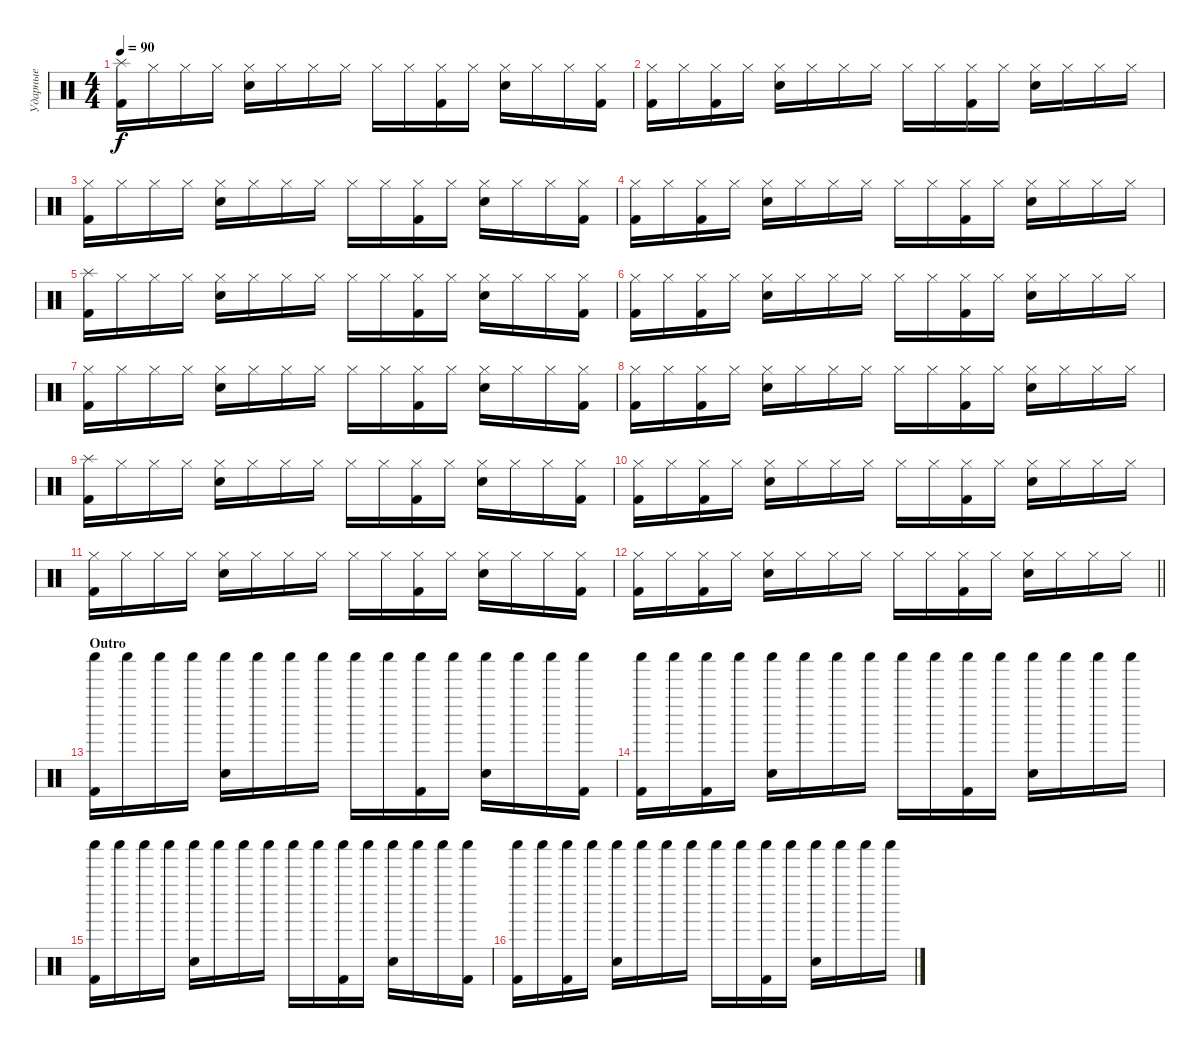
\track ("Ударные" "Ударные") {instrument percussion}
\staff {score}
\articulation defaults
\ts (4 4)
\tempo 90
\clef neutral
\ks c
("Splash (hit)" "Kick (hit) 2").16{dy f} "Hi-Hat (closed)".16 "Hi-Hat (closed)".16 "Hi-Hat (closed)".16 ("Hi-Hat (closed)" "Electric Snare (hit)").16 "Hi-Hat (closed)".16 "Hi-Hat (closed)".16 "Hi-Hat (closed)".16 "Hi-Hat (closed)".16 "Hi-Hat (closed)".16 ("Hi-Hat (closed)" "Kick (hit) 2").16 "Hi-Hat (closed)".16 ("Hi-Hat (closed)" "Electric Snare (hit)").16 "Hi-Hat (closed)".16 "Hi-Hat (closed)".16 ("Hi-Hat (closed)" "Kick (hit) 2").16 |
("Hi-Hat (closed)" "Kick (hit) 2").16 "Hi-Hat (closed)".16 ("Hi-Hat (closed)" "Kick (hit) 2").16 "Hi-Hat (closed)".16 ("Hi-Hat (closed)" "Electric Snare (hit)").16 "Hi-Hat (closed)".16 "Hi-Hat (closed)".16 "Hi-Hat (closed)".16 "Hi-Hat (closed)".16 "Hi-Hat (closed)".16 ("Hi-Hat (closed)" "Kick (hit) 2").16 "Hi-Hat (closed)".16 ("Hi-Hat (closed)" "Electric Snare (hit)").16 "Hi-Hat (closed)".16 "Hi-Hat (closed)".16 "Hi-Hat (closed)".16 |
("Hi-Hat (closed)" "Kick (hit) 2").16 "Hi-Hat (closed)".16 "Hi-Hat (closed)".16 "Hi-Hat (closed)".16 ("Hi-Hat (closed)" "Electric Snare (hit)").16 "Hi-Hat (closed)".16 "Hi-Hat (closed)".16 "Hi-Hat (closed)".16 "Hi-Hat (closed)".16 "Hi-Hat (closed)".16 ("Hi-Hat (closed)" "Kick (hit) 2").16 "Hi-Hat (closed)".16 ("Hi-Hat (closed)" "Electric Snare (hit)").16 "Hi-Hat (closed)".16 "Hi-Hat (closed)".16 ("Hi-Hat (closed)" "Kick (hit) 2").16 |
("Hi-Hat (closed)" "Kick (hit) 2").16 "Hi-Hat (closed)".16 ("Hi-Hat (closed)" "Kick (hit) 2").16 "Hi-Hat (closed)".16 ("Hi-Hat (closed)" "Electric Snare (hit)").16 "Hi-Hat (closed)".16 "Hi-Hat (closed)".16 "Hi-Hat (closed)".16 "Hi-Hat (closed)".16 "Hi-Hat (closed)".16 ("Hi-Hat (closed)" "Kick (hit) 2").16 "Hi-Hat (closed)".16 ("Hi-Hat (closed)" "Electric Snare (hit)").16 "Hi-Hat (closed)".16 "Hi-Hat (closed)".16 "Hi-Hat (closed)".16 |
("Splash (hit)" "Kick (hit) 2").16 "Hi-Hat (closed)".16 "Hi-Hat (closed)".16 "Hi-Hat (closed)".16 ("Hi-Hat (closed)" "Electric Snare (hit)").16 "Hi-Hat (closed)".16 "Hi-Hat (closed)".16 "Hi-Hat (closed)".16 "Hi-Hat (closed)".16 "Hi-Hat (closed)".16 ("Hi-Hat (closed)" "Kick (hit) 2").16 "Hi-Hat (closed)".16 ("Hi-Hat (closed)" "Electric Snare (hit)").16 "Hi-Hat (closed)".16 "Hi-Hat (closed)".16 ("Hi-Hat (closed)" "Kick (hit) 2").16 |
("Hi-Hat (closed)" "Kick (hit) 2").16 "Hi-Hat (closed)".16 ("Hi-Hat (closed)" "Kick (hit) 2").16 "Hi-Hat (closed)".16 ("Hi-Hat (closed)" "Electric Snare (hit)").16 "Hi-Hat (closed)".16 "Hi-Hat (closed)".16 "Hi-Hat (closed)".16 "Hi-Hat (closed)".16 "Hi-Hat (closed)".16 ("Hi-Hat (closed)" "Kick (hit) 2").16 "Hi-Hat (closed)".16 ("Hi-Hat (closed)" "Electric Snare (hit)").16 "Hi-Hat (closed)".16 "Hi-Hat (closed)".16 "Hi-Hat (closed)".16 |
("Hi-Hat (closed)" "Kick (hit) 2").16 "Hi-Hat (closed)".16 "Hi-Hat (closed)".16 "Hi-Hat (closed)".16 ("Hi-Hat (closed)" "Electric Snare (hit)").16 "Hi-Hat (closed)".16 "Hi-Hat (closed)".16 "Hi-Hat (closed)".16 "Hi-Hat (closed)".16 "Hi-Hat (closed)".16 ("Hi-Hat (closed)" "Kick (hit) 2").16 "Hi-Hat (closed)".16 ("Hi-Hat (closed)" "Electric Snare (hit)").16 "Hi-Hat (closed)".16 "Hi-Hat (closed)".16 ("Hi-Hat (closed)" "Kick (hit) 2").16 |
("Hi-Hat (closed)" "Kick (hit) 2").16 "Hi-Hat (closed)".16 ("Hi-Hat (closed)" "Kick (hit) 2").16 "Hi-Hat (closed)".16 ("Hi-Hat (closed)" "Electric Snare (hit)").16 "Hi-Hat (closed)".16 "Hi-Hat (closed)".16 "Hi-Hat (closed)".16 "Hi-Hat (closed)".16 "Hi-Hat (closed)".16 ("Hi-Hat (closed)" "Kick (hit) 2").16 "Hi-Hat (closed)".16 ("Hi-Hat (closed)" "Electric Snare (hit)").16 "Hi-Hat (closed)".16 "Hi-Hat (closed)".16 "Hi-Hat (closed)".16 |
("Splash (hit)" "Kick (hit) 2").16 "Hi-Hat (closed)".16 "Hi-Hat (closed)".16 "Hi-Hat (closed)".16 ("Hi-Hat (closed)" "Electric Snare (hit)").16 "Hi-Hat (closed)".16 "Hi-Hat (closed)".16 "Hi-Hat (closed)".16 "Hi-Hat (closed)".16 "Hi-Hat (closed)".16 ("Hi-Hat (closed)" "Kick (hit) 2").16 "Hi-Hat (closed)".16 ("Hi-Hat (closed)" "Electric Snare (hit)").16 "Hi-Hat (closed)".16 "Hi-Hat (closed)".16 ("Hi-Hat (closed)" "Kick (hit) 2").16 |
("Hi-Hat (closed)" "Kick (hit) 2").16 "Hi-Hat (closed)".16 ("Hi-Hat (closed)" "Kick (hit) 2").16 "Hi-Hat (closed)".16 ("Hi-Hat (closed)" "Electric Snare (hit)").16 "Hi-Hat (closed)".16 "Hi-Hat (closed)".16 "Hi-Hat (closed)".16 "Hi-Hat (closed)".16 "Hi-Hat (closed)".16 ("Hi-Hat (closed)" "Kick (hit) 2").16 "Hi-Hat (closed)".16 ("Hi-Hat (closed)" "Electric Snare (hit)").16 "Hi-Hat (closed)".16 "Hi-Hat (closed)".16 "Hi-Hat (closed)".16 |
("Hi-Hat (closed)" "Kick (hit) 2").16 "Hi-Hat (closed)".16 "Hi-Hat (closed)".16 "Hi-Hat (closed)".16 ("Hi-Hat (closed)" "Electric Snare (hit)").16 "Hi-Hat (closed)".16 "Hi-Hat (closed)".16 "Hi-Hat (closed)".16 "Hi-Hat (closed)".16 "Hi-Hat (closed)".16 ("Hi-Hat (closed)" "Kick (hit) 2").16 "Hi-Hat (closed)".16 ("Hi-Hat (closed)" "Electric Snare (hit)").16 "Hi-Hat (closed)".16 "Hi-Hat (closed)".16 ("Hi-Hat (closed)" "Kick (hit) 2").16 |
\barLineRight lightlight
("Hi-Hat (closed)" "Kick (hit) 2").16 "Hi-Hat (closed)".16 ("Hi-Hat (closed)" "Kick (hit) 2").16 "Hi-Hat (closed)".16 ("Hi-Hat (closed)" "Electric Snare (hit)").16 "Hi-Hat (closed)".16 "Hi-Hat (closed)".16 "Hi-Hat (closed)".16 "Hi-Hat (closed)".16 "Hi-Hat (closed)".16 ("Hi-Hat (closed)" "Kick (hit) 2").16 "Hi-Hat (closed)".16 ("Hi-Hat (closed)" "Electric Snare (hit)").16 "Hi-Hat (closed)".16 "Hi-Hat (closed)".16 "Hi-Hat (closed)".16 |
\section ("" "Outro")
("Shaker (hit)" "Kick (hit) 2").16 "Shaker (hit)".16 "Shaker (hit)".16 "Shaker (hit)".16 ("Shaker (hit)" "Electric Snare (hit)").16 "Shaker (hit)".16 "Shaker (hit)".16 "Shaker (hit)".16 "Shaker (hit)".16 "Shaker (hit)".16 ("Shaker (hit)" "Kick (hit) 2").16 "Shaker (hit)".16 ("Shaker (hit)" "Electric Snare (hit)").16 "Shaker (hit)".16 "Shaker (hit)".16 ("Shaker (hit)" "Kick (hit) 2").16 |
("Shaker (hit)" "Kick (hit) 2").16 "Shaker (hit)".16 ("Shaker (hit)" "Kick (hit) 2").16 "Shaker (hit)".16 ("Shaker (hit)" "Electric Snare (hit)").16 "Shaker (hit)".16 "Shaker (hit)".16 "Shaker (hit)".16 "Shaker (hit)".16 "Shaker (hit)".16 ("Shaker (hit)" "Kick (hit) 2").16 "Shaker (hit)".16 ("Shaker (hit)" "Electric Snare (hit)").16 "Shaker (hit)".16 "Shaker (hit)".16 "Shaker (hit)".16 |
("Shaker (hit)" "Kick (hit) 2").16 "Shaker (hit)".16 "Shaker (hit)".16 "Shaker (hit)".16 ("Shaker (hit)" "Electric Snare (hit)").16 "Shaker (hit)".16 "Shaker (hit)".16 "Shaker (hit)".16 "Shaker (hit)".16 "Shaker (hit)".16 ("Shaker (hit)" "Kick (hit) 2").16 "Shaker (hit)".16 ("Shaker (hit)" "Electric Snare (hit)").16 "Shaker (hit)".16 "Shaker (hit)".16 ("Shaker (hit)" "Kick (hit) 2").16 |
("Shaker (hit)" "Kick (hit) 2").16 "Shaker (hit)".16 ("Shaker (hit)" "Kick (hit) 2").16 "Shaker (hit)".16 ("Shaker (hit)" "Electric Snare (hit)").16 "Shaker (hit)".16 "Shaker (hit)".16 "Shaker (hit)".16 "Shaker (hit)".16 "Shaker (hit)".16 ("Shaker (hit)" "Kick (hit) 2").16 "Shaker (hit)".16 ("Shaker (hit)" "Electric Snare (hit)").16 "Shaker (hit)".16 "Shaker (hit)".16 "Shaker (hit)".16
